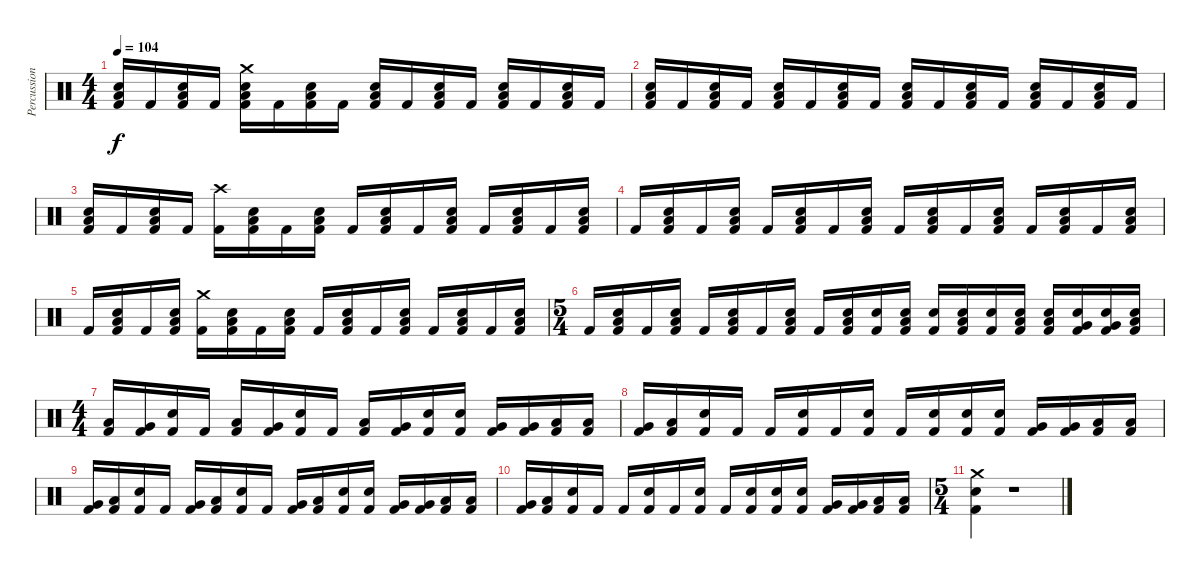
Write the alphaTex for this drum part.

\track ("Percussion" "Percussion") {instrument percussion}
\staff {score}
\articulation defaults
\ts (4 4)
\tempo 104
\clef neutral
\ks c
("Low Floor Tom (hit)" "Snare (hit) 2" "Kick (hit) 2").16{dy f} "Kick (hit) 2".16 ("Low Floor Tom (hit)" "Snare (hit) 2" "Kick (hit) 2").16 "Kick (hit) 2".16 ("Crash medium (hit)" "Low Floor Tom (hit)" "Snare (hit) 2" "Kick (hit) 2").16 "Kick (hit) 2".16 ("Low Floor Tom (hit)" "Snare (hit) 2" "Kick (hit) 2").16 "Kick (hit) 2".16 ("Low Floor Tom (hit)" "Snare (hit) 2" "Kick (hit) 2").16 "Kick (hit) 2".16 ("Low Floor Tom (hit)" "Snare (hit) 2" "Kick (hit) 2").16 "Kick (hit) 2".16 ("Low Floor Tom (hit)" "Snare (hit) 2" "Kick (hit) 2").16 "Kick (hit) 2".16 ("Low Floor Tom (hit)" "Snare (hit) 2" "Kick (hit) 2").16 "Kick (hit) 2".16 |
("Low Floor Tom (hit)" "Snare (hit) 2" "Kick (hit) 2").16 "Kick (hit) 2".16 ("Low Floor Tom (hit)" "Snare (hit) 2" "Kick (hit) 2").16 "Kick (hit) 2".16 ("Low Floor Tom (hit)" "Snare (hit) 2" "Kick (hit) 2").16 "Kick (hit) 2".16 ("Low Floor Tom (hit)" "Snare (hit) 2" "Kick (hit) 2").16 "Kick (hit) 2".16 ("Low Floor Tom (hit)" "Snare (hit) 2" "Kick (hit) 2").16 "Kick (hit) 2".16 ("Low Floor Tom (hit)" "Snare (hit) 2" "Kick (hit) 2").16 "Kick (hit) 2".16 ("Low Floor Tom (hit)" "Snare (hit) 2" "Kick (hit) 2").16 "Kick (hit) 2".16 ("Low Floor Tom (hit)" "Snare (hit) 2" "Kick (hit) 2").16 "Kick (hit) 2".16 |
("Low Floor Tom (hit)" "Snare (hit) 2" "Kick (hit) 2").16 "Kick (hit) 2".16 ("Low Floor Tom (hit)" "Snare (hit) 2" "Kick (hit) 2").16 "Kick (hit) 2".16 ("Crash high (hit)" "Kick (hit) 2").16 ("Low Floor Tom (hit)" "Snare (hit) 2" "Kick (hit) 2").16 "Kick (hit) 2".16 ("Low Floor Tom (hit)" "Snare (hit) 2" "Kick (hit) 2").16 "Kick (hit) 2".16 ("Low Floor Tom (hit)" "Snare (hit) 2" "Kick (hit) 2").16 "Kick (hit) 2".16 ("Low Floor Tom (hit)" "Snare (hit) 2" "Kick (hit) 2").16 "Kick (hit) 2".16 ("Low Floor Tom (hit)" "Snare (hit) 2" "Kick (hit) 2").16 "Kick (hit) 2".16 ("Low Floor Tom (hit)" "Snare (hit) 2" "Kick (hit) 2").16 |
"Kick (hit) 2".16 ("Low Floor Tom (hit)" "Snare (hit) 2" "Kick (hit) 2").16 "Kick (hit) 2".16 ("Low Floor Tom (hit)" "Snare (hit) 2" "Kick (hit) 2").16 "Kick (hit) 2".16 ("Low Floor Tom (hit)" "Snare (hit) 2" "Kick (hit) 2").16 "Kick (hit) 2".16 ("Low Floor Tom (hit)" "Snare (hit) 2" "Kick (hit) 2").16 "Kick (hit) 2".16 ("Low Floor Tom (hit)" "Snare (hit) 2" "Kick (hit) 2").16 "Kick (hit) 2".16 ("Low Floor Tom (hit)" "Snare (hit) 2" "Kick (hit) 2").16 "Kick (hit) 2".16 ("Low Floor Tom (hit)" "Snare (hit) 2" "Kick (hit) 2").16 "Kick (hit) 2".16 ("Low Floor Tom (hit)" "Snare (hit) 2" "Kick (hit) 2").16 |
"Kick (hit) 2".16 ("Low Floor Tom (hit)" "Snare (hit) 2" "Kick (hit) 2").16 "Kick (hit) 2".16 ("Low Floor Tom (hit)" "Snare (hit) 2" "Kick (hit) 2").16 ("Crash medium (hit)" "Kick (hit) 2").16 ("Low Floor Tom (hit)" "Snare (hit) 2" "Kick (hit) 2").16 "Kick (hit) 2".16 ("Low Floor Tom (hit)" "Snare (hit) 2" "Kick (hit) 2").16 "Kick (hit) 2".16 ("Low Floor Tom (hit)" "Snare (hit) 2" "Kick (hit) 2").16 "Kick (hit) 2".16 ("Low Floor Tom (hit)" "Snare (hit) 2" "Kick (hit) 2").16 "Kick (hit) 2".16 ("Low Floor Tom (hit)" "Snare (hit) 2" "Kick (hit) 2").16 "Kick (hit) 2".16 ("Low Floor Tom (hit)" "Snare (hit) 2" "Kick (hit) 2").16 |
\ts (5 4)
"Kick (hit) 2".16 ("Low Floor Tom (hit)" "Snare (hit) 2" "Kick (hit) 2").16 "Kick (hit) 2".16 ("Low Floor Tom (hit)" "Snare (hit) 2" "Kick (hit) 2").16 "Kick (hit) 2".16 ("Low Floor Tom (hit)" "Snare (hit) 2" "Kick (hit) 2").16 "Kick (hit) 2".16 ("Low Floor Tom (hit)" "Snare (hit) 2" "Kick (hit) 2").16 "Kick (hit) 2".16 ("Low Floor Tom (hit)" "Snare (hit) 2" "Kick (hit) 2").16 ("Snare (hit) 2" "Kick (hit) 2").16 ("Low Floor Tom (hit)" "Snare (hit) 2" "Kick (hit) 2").16 ("Snare (hit) 2" "Kick (hit) 2").16 ("Low Floor Tom (hit)" "Snare (hit) 2" "Kick (hit) 2").16 ("Snare (hit) 2" "Kick (hit) 2").16 ("Low Floor Tom (hit)" "Snare (hit) 2" "Kick (hit) 2").16 ("Low Tom (hit)" "Snare (hit) 2" "Kick (hit) 2").16 ("Very Low Tom (hit)" "Snare (hit) 2" "Kick (hit) 2").16 ("Very Low Tom (hit)" "Snare (hit) 2" "Kick (hit) 2").16 ("Low Floor Tom (hit)" "Snare (hit) 2" "Kick (hit) 2").16 |
\ts (4 4)
("Low Tom (hit)" "Kick (hit) 2").16 ("Very Low Tom (hit)" "Kick (hit) 2").16 ("Snare (hit) 2" "Kick (hit) 2").16 "Kick (hit) 2".16 ("Low Tom (hit)" "Kick (hit) 2").16 ("Very Low Tom (hit)" "Kick (hit) 2").16 ("Snare (hit) 2" "Kick (hit) 2").16 "Kick (hit) 2".16 ("Low Tom (hit)" "Kick (hit) 2").16 ("Very Low Tom (hit)" "Kick (hit) 2").16 ("Snare (hit) 2" "Kick (hit) 2").16 ("Snare (hit) 2" "Kick (hit) 2").16 ("Very Low Tom (hit)" "Kick (hit) 2").16 ("Very Low Tom (hit)" "Kick (hit) 2").16 ("Low Floor Tom (hit)" "Kick (hit) 2").16 ("Low Floor Tom (hit)" "Kick (hit) 2").16 |
("Very Low Tom (hit)" "Kick (hit) 2").16 ("Low Floor Tom (hit)" "Kick (hit) 2").16 ("Snare (hit) 2" "Kick (hit) 2").16 "Kick (hit) 2".16 "Kick (hit) 2".16 ("Snare (hit) 2" "Kick (hit) 2").16 "Kick (hit) 2".16 ("Snare (hit) 2" "Kick (hit) 2").16 "Kick (hit) 2".16 ("Snare (hit) 2" "Kick (hit) 2").16 ("Snare (hit) 2" "Kick (hit) 2").16 ("Snare (hit) 2" "Kick (hit) 2").16 ("Very Low Tom (hit)" "Kick (hit) 2").16 ("Very Low Tom (hit)" "Kick (hit) 2").16 ("Low Floor Tom (hit)" "Kick (hit) 2").16 ("Low Floor Tom (hit)" "Kick (hit) 2").16 |
("Very Low Tom (hit)" "Kick (hit) 2").16 ("Low Floor Tom (hit)" "Kick (hit) 2").16 ("Snare (hit) 2" "Kick (hit) 2").16 "Kick (hit) 2".16 ("Very Low Tom (hit)" "Kick (hit) 2").16 ("Low Floor Tom (hit)" "Kick (hit) 2").16 ("Snare (hit) 2" "Kick (hit) 2").16 "Kick (hit) 2".16 ("Very Low Tom (hit)" "Kick (hit) 2").16 ("Low Floor Tom (hit)" "Kick (hit) 2").16 ("Snare (hit) 2" "Kick (hit) 2").16 ("Snare (hit) 2" "Kick (hit) 2").16 ("Very Low Tom (hit)" "Kick (hit) 2").16 ("Very Low Tom (hit)" "Kick (hit) 2").16 ("Low Floor Tom (hit)" "Kick (hit) 2").16 ("Low Floor Tom (hit)" "Kick (hit) 2").16 |
("Very Low Tom (hit)" "Kick (hit) 2").16 ("Low Floor Tom (hit)" "Kick (hit) 2").16 ("Snare (hit) 2" "Kick (hit) 2").16 "Kick (hit) 2".16 "Kick (hit) 2".16 ("Snare (hit) 2" "Kick (hit) 2").16 "Kick (hit) 2".16 ("Snare (hit) 2" "Kick (hit) 2").16 "Kick (hit) 2".16 ("Snare (hit) 2" "Kick (hit) 2").16 ("Snare (hit) 2" "Kick (hit) 2").16 ("Snare (hit) 2" "Kick (hit) 2").16 ("Very Low Tom (hit)" "Kick (hit) 2").16 ("Very Low Tom (hit)" "Kick (hit) 2").16 ("Low Floor Tom (hit)" "Kick (hit) 2").16 ("Low Floor Tom (hit)" "Kick (hit) 2").16 |
\ts (5 4)
("Crash medium (hit)" "Snare (hit) 2" "Kick (hit) 2").4 r.1
